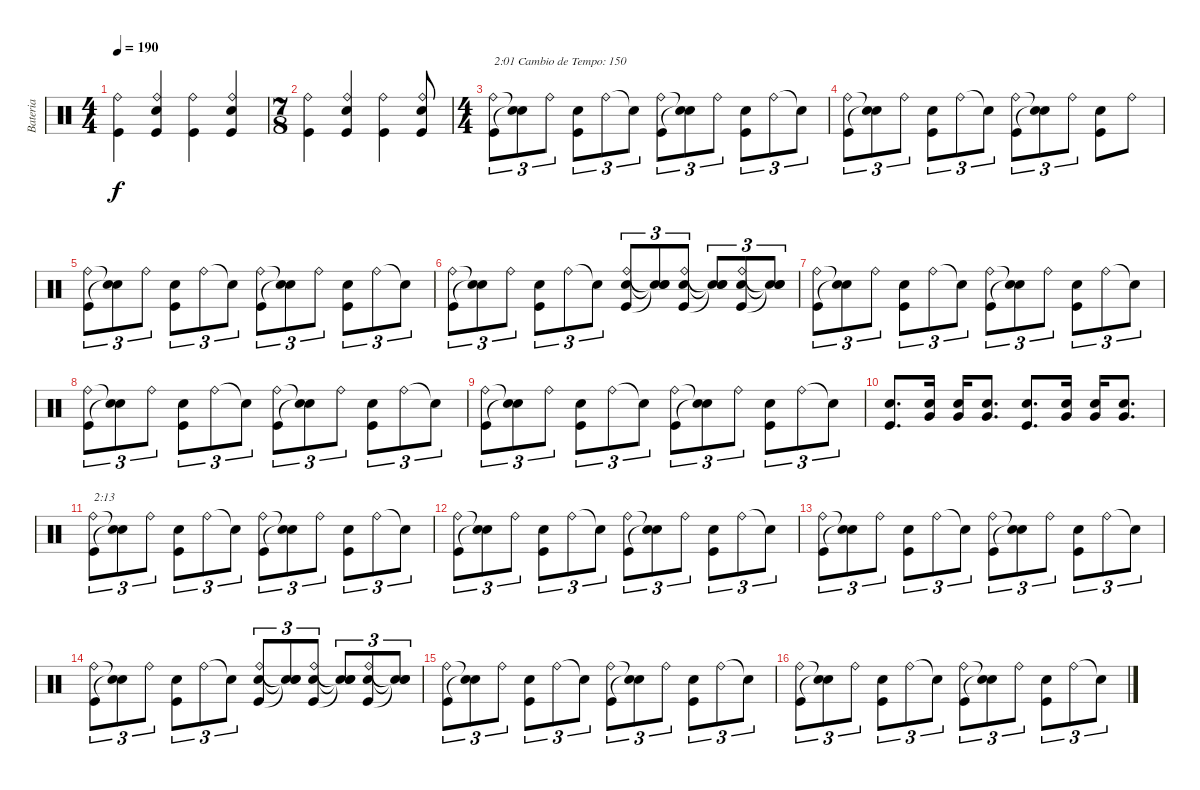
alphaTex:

\track ("Bateria" "Bateria") {instrument percussion}
\staff {score}
\articulation defaults
\ts (4 4)
\tempo 190
\clef neutral
\ks c
("Kick (hit)" "Ride (bell)").4{dy f} ("Kick (hit)" "Snare (hit) 2" "Ride (bell)").4 ("Kick (hit)" "Ride (bell)").4 ("Kick (hit)" "Snare (hit) 2" "Ride (bell)").4 |
\ts (7 8)
("Kick (hit)" "Ride (bell)").4 ("Kick (hit)" "Snare (hit) 2" "Ride (bell)").4 ("Kick (hit)" "Ride (bell)").4 ("Kick (hit)" "Snare (hit) 2" "Ride (bell)").8 |
\ts (4 4)
("Kick (hit)" "Ride (bell)").8{tu (3 2) txt "2:01 Cambio de Tempo: 150"} ("Snare (hit)"{t} "Snare (hit)"{t}).8{tu (3 2)} "Ride (bell)".8{tu (3 2)} ("Kick (hit)" "Snare (hit) 2").8{tu (3 2)} "Ride (bell)".8{tu (3 2)} "Snare (hit)"{t}.8{tu (3 2)} ("Kick (hit)" "Ride (bell)").8{tu (3 2)} ("Snare (hit)"{t} "Snare (hit)"{t}).8{tu (3 2)} "Ride (bell)".8{tu (3 2)} ("Kick (hit)" "Snare (hit) 2").8{tu (3 2)} "Ride (bell)".8{tu (3 2)} "Snare (hit)"{t}.8{tu (3 2)} |
("Kick (hit)" "Ride (bell)").8{tu (3 2)} ("Snare (hit)"{t} "Snare (hit)"{t}).8{tu (3 2)} "Ride (bell)".8{tu (3 2)} ("Kick (hit)" "Snare (hit) 2").8{tu (3 2)} "Ride (bell)".8{tu (3 2)} "Snare (hit)"{t}.8{tu (3 2)} ("Kick (hit)" "Ride (bell)").8{tu (3 2)} ("Snare (hit)"{t} "Snare (hit)"{t}).8{tu (3 2)} "Ride (bell)".8{tu (3 2)} ("Kick (hit)" "Snare (hit) 2").8 "Ride (bell)".8 |
("Kick (hit)" "Ride (bell)").8{tu (3 2)} ("Snare (hit)"{t} "Snare (hit)"{t}).8{tu (3 2)} "Ride (bell)".8{tu (3 2)} ("Kick (hit)" "Snare (hit) 2").8{tu (3 2)} "Ride (bell)".8{tu (3 2)} "Snare (hit)"{t}.8{tu (3 2)} ("Kick (hit)" "Ride (bell)").8{tu (3 2)} ("Snare (hit)"{t} "Snare (hit)"{t}).8{tu (3 2)} "Ride (bell)".8{tu (3 2)} ("Kick (hit)" "Snare (hit) 2").8{tu (3 2)} "Ride (bell)".8{tu (3 2)} "Snare (hit)"{t}.8{tu (3 2)} |
("Kick (hit)" "Ride (bell)").8{tu (3 2)} ("Snare (hit)"{t} "Snare (hit)"{t}).8{tu (3 2)} "Ride (bell)".8{tu (3 2)} ("Kick (hit)" "Snare (hit) 2").8{tu (3 2)} "Ride (bell)".8{tu (3 2)} "Snare (hit)"{t}.8{tu (3 2)} ("Kick (hit)" "Snare (hit) 2" "Ride (bell)").8{tu (3 2)} ("Snare (hit)"{t} "Snare (hit)"{t} "Snare (hit)"{t}).8{tu (3 2)} ("Kick (hit)" "Snare (hit) 2" "Ride (bell)").8{tu (3 2)} ("Snare (hit)"{t} "Snare (hit)"{t} "Snare (hit)"{t}).8{tu (3 2)} ("Kick (hit)" "Snare (hit) 2" "Ride (bell)").8{tu (3 2)} ("Snare (hit)"{t} "Snare (hit)"{t} "Snare (hit)"{t}).8{tu (3 2)} |
("Kick (hit)" "Ride (bell)").8{tu (3 2)} ("Snare (hit)"{t} "Snare (hit)"{t}).8{tu (3 2)} "Ride (bell)".8{tu (3 2)} ("Kick (hit)" "Snare (hit) 2").8{tu (3 2)} "Ride (bell)".8{tu (3 2)} "Snare (hit)"{t}.8{tu (3 2)} ("Kick (hit)" "Ride (bell)").8{tu (3 2)} ("Snare (hit)"{t} "Snare (hit)"{t}).8{tu (3 2)} "Ride (bell)".8{tu (3 2)} ("Kick (hit)" "Snare (hit) 2").8{tu (3 2)} "Ride (bell)".8{tu (3 2)} "Snare (hit)"{t}.8{tu (3 2)} |
("Kick (hit)" "Ride (bell)").8{tu (3 2)} ("Snare (hit)"{t} "Snare (hit)"{t}).8{tu (3 2)} "Ride (bell)".8{tu (3 2)} ("Kick (hit)" "Snare (hit) 2").8{tu (3 2)} "Ride (bell)".8{tu (3 2)} "Snare (hit)"{t}.8{tu (3 2)} ("Kick (hit)" "Ride (bell)").8{tu (3 2)} ("Snare (hit)"{t} "Snare (hit)"{t}).8{tu (3 2)} "Ride (bell)".8{tu (3 2)} ("Kick (hit)" "Snare (hit) 2").8{tu (3 2)} "Ride (bell)".8{tu (3 2)} "Snare (hit)"{t}.8{tu (3 2)} |
("Kick (hit)" "Ride (bell)").8{tu (3 2)} ("Snare (hit)"{t} "Snare (hit)"{t}).8{tu (3 2)} "Ride (bell)".8{tu (3 2)} ("Kick (hit)" "Snare (hit) 2").8{tu (3 2)} "Ride (bell)".8{tu (3 2)} "Snare (hit)"{t}.8{tu (3 2)} ("Kick (hit)" "Ride (bell)").8{tu (3 2)} ("Snare (hit)"{t} "Snare (hit)"{t}).8{tu (3 2)} "Ride (bell)".8{tu (3 2)} ("Kick (hit)" "Snare (hit) 2").8{tu (3 2)} "Ride (bell)".8{tu (3 2)} "Snare (hit)"{t}.8{tu (3 2)} |
("Kick (hit)" "Snare (hit) 2").8{d} ("Snare (hit) 2" "Very Low Tom (hit)").16 ("Snare (hit) 2" "Very Low Tom (hit)").16 ("Snare (hit) 2" "Very Low Tom (hit)").8{d} ("Kick (hit)" "Snare (hit) 2").8{d} ("Snare (hit) 2" "Very Low Tom (hit)").16 ("Snare (hit) 2" "Very Low Tom (hit)").16 ("Snare (hit) 2" "Very Low Tom (hit)").8{d} |
("Kick (hit)" "Ride (bell)").8{tu (3 2) txt "2:13"} ("Snare (hit)"{t} "Snare (hit)"{t}).8{tu (3 2)} "Ride (bell)".8{tu (3 2)} ("Kick (hit)" "Snare (hit) 2").8{tu (3 2)} "Ride (bell)".8{tu (3 2)} "Snare (hit)"{t}.8{tu (3 2)} ("Kick (hit)" "Ride (bell)").8{tu (3 2)} ("Snare (hit)"{t} "Snare (hit)"{t}).8{tu (3 2)} "Ride (bell)".8{tu (3 2)} ("Kick (hit)" "Snare (hit) 2").8{tu (3 2)} "Ride (bell)".8{tu (3 2)} "Snare (hit)"{t}.8{tu (3 2)} |
("Kick (hit)" "Ride (bell)").8{tu (3 2)} ("Snare (hit)"{t} "Snare (hit)"{t}).8{tu (3 2)} "Ride (bell)".8{tu (3 2)} ("Kick (hit)" "Snare (hit) 2").8{tu (3 2)} "Ride (bell)".8{tu (3 2)} "Snare (hit)"{t}.8{tu (3 2)} ("Kick (hit)" "Ride (bell)").8{tu (3 2)} ("Snare (hit)"{t} "Snare (hit)"{t}).8{tu (3 2)} "Ride (bell)".8{tu (3 2)} ("Kick (hit)" "Snare (hit) 2").8{tu (3 2)} "Ride (bell)".8{tu (3 2)} "Snare (hit)"{t}.8{tu (3 2)} |
("Kick (hit)" "Ride (bell)").8{tu (3 2)} ("Snare (hit)"{t} "Snare (hit)"{t}).8{tu (3 2)} "Ride (bell)".8{tu (3 2)} ("Kick (hit)" "Snare (hit) 2").8{tu (3 2)} "Ride (bell)".8{tu (3 2)} "Snare (hit)"{t}.8{tu (3 2)} ("Kick (hit)" "Ride (bell)").8{tu (3 2)} ("Snare (hit)"{t} "Snare (hit)"{t}).8{tu (3 2)} "Ride (bell)".8{tu (3 2)} ("Kick (hit)" "Snare (hit) 2").8{tu (3 2)} "Ride (bell)".8{tu (3 2)} "Snare (hit)"{t}.8{tu (3 2)} |
("Kick (hit)" "Ride (bell)").8{tu (3 2)} ("Snare (hit)"{t} "Snare (hit)"{t}).8{tu (3 2)} "Ride (bell)".8{tu (3 2)} ("Kick (hit)" "Snare (hit) 2").8{tu (3 2)} "Ride (bell)".8{tu (3 2)} "Snare (hit)"{t}.8{tu (3 2)} ("Kick (hit)" "Snare (hit) 2" "Ride (bell)").8{tu (3 2)} ("Snare (hit)"{t} "Snare (hit)"{t} "Snare (hit)"{t}).8{tu (3 2)} ("Kick (hit)" "Snare (hit) 2" "Ride (bell)").8{tu (3 2)} ("Snare (hit)"{t} "Snare (hit)"{t} "Snare (hit)"{t}).8{tu (3 2)} ("Kick (hit)" "Snare (hit) 2" "Ride (bell)").8{tu (3 2)} ("Snare (hit)"{t} "Snare (hit)"{t} "Snare (hit)"{t}).8{tu (3 2)} |
("Kick (hit)" "Ride (bell)").8{tu (3 2)} ("Snare (hit)"{t} "Snare (hit)"{t}).8{tu (3 2)} "Ride (bell)".8{tu (3 2)} ("Kick (hit)" "Snare (hit) 2").8{tu (3 2)} "Ride (bell)".8{tu (3 2)} "Snare (hit)"{t}.8{tu (3 2)} ("Kick (hit)" "Ride (bell)").8{tu (3 2)} ("Snare (hit)"{t} "Snare (hit)"{t}).8{tu (3 2)} "Ride (bell)".8{tu (3 2)} ("Kick (hit)" "Snare (hit) 2").8{tu (3 2)} "Ride (bell)".8{tu (3 2)} "Snare (hit)"{t}.8{tu (3 2)} |
("Kick (hit)" "Ride (bell)").8{tu (3 2)} ("Snare (hit)"{t} "Snare (hit)"{t}).8{tu (3 2)} "Ride (bell)".8{tu (3 2)} ("Kick (hit)" "Snare (hit) 2").8{tu (3 2)} "Ride (bell)".8{tu (3 2)} "Snare (hit)"{t}.8{tu (3 2)} ("Kick (hit)" "Ride (bell)").8{tu (3 2)} ("Snare (hit)"{t} "Snare (hit)"{t}).8{tu (3 2)} "Ride (bell)".8{tu (3 2)} ("Kick (hit)" "Snare (hit) 2").8{tu (3 2)} "Ride (bell)".8{tu (3 2)} "Snare (hit)"{t}.8{tu (3 2)}
